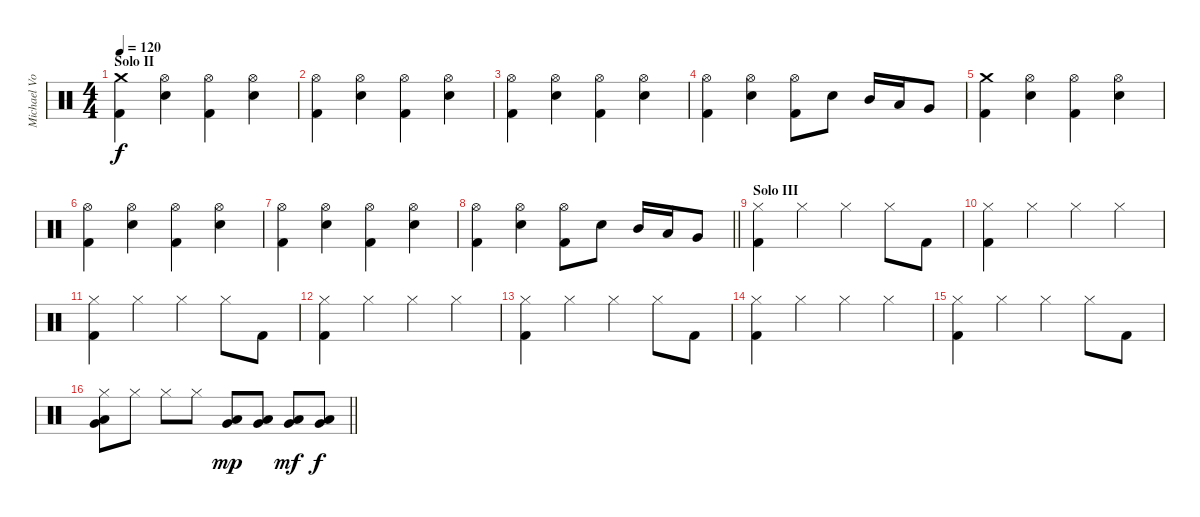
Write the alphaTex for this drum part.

\track ("Michael Von Knorring" "Michael Vo") {instrument percussion}
\staff {score}
\articulation defaults
\ts (4 4)
\section ("" "Solo II")
\tempo 120
\clef neutral
\ks c
("Crash medium (hit)" "Kick (hit) 2").4{dy f} ("Hi-Hat (open)" "Snare (hit) 2").4 ("Hi-Hat (open)" "Kick (hit) 2").4 ("Hi-Hat (open)" "Snare (hit) 2").4 |
("Hi-Hat (open)" "Kick (hit) 2").4 ("Hi-Hat (open)" "Snare (hit) 2").4 ("Hi-Hat (open)" "Kick (hit) 2").4 ("Hi-Hat (open)" "Snare (hit) 2").4 |
("Hi-Hat (open)" "Kick (hit) 2").4 ("Hi-Hat (open)" "Snare (hit) 2").4 ("Hi-Hat (open)" "Kick (hit) 2").4 ("Hi-Hat (open)" "Snare (hit) 2").4 |
("Hi-Hat (open)" "Kick (hit) 2").4 ("Hi-Hat (open)" "Snare (hit) 2").4 ("Hi-Hat (open)" "Kick (hit) 2").8 "Snare (hit) 2".8 "Mid Tom (hit)".16 "Low Tom (hit)".16 "Very Low Tom (hit)".8 |
("Crash medium (hit)" "Kick (hit) 2").4 ("Hi-Hat (open)" "Snare (hit) 2").4 ("Hi-Hat (open)" "Kick (hit) 2").4 ("Hi-Hat (open)" "Snare (hit) 2").4 |
("Hi-Hat (open)" "Kick (hit) 2").4 ("Hi-Hat (open)" "Snare (hit) 2").4 ("Hi-Hat (open)" "Kick (hit) 2").4 ("Hi-Hat (open)" "Snare (hit) 2").4 |
("Hi-Hat (open)" "Kick (hit) 2").4 ("Hi-Hat (open)" "Snare (hit) 2").4 ("Hi-Hat (open)" "Kick (hit) 2").4 ("Hi-Hat (open)" "Snare (hit) 2").4 |
\barLineRight lightlight
("Hi-Hat (open)" "Kick (hit) 2").4 ("Hi-Hat (open)" "Snare (hit) 2").4 ("Hi-Hat (open)" "Kick (hit) 2").8 "Snare (hit) 2".8 "Mid Tom (hit)".16 "Low Tom (hit)".16 "Very Low Tom (hit)".8 |
\section ("" "Solo III")
("Hi-Hat (closed)" "Kick (hit) 2").4 "Hi-Hat (closed)".4 "Hi-Hat (closed)".4 "Hi-Hat (closed)".8 "Kick (hit) 2".8 |
("Hi-Hat (closed)" "Kick (hit) 2").4 "Hi-Hat (closed)".4 "Hi-Hat (closed)".4 "Hi-Hat (closed)".4 |
("Hi-Hat (closed)" "Kick (hit) 2").4 "Hi-Hat (closed)".4 "Hi-Hat (closed)".4 "Hi-Hat (closed)".8 "Kick (hit) 2".8 |
("Hi-Hat (closed)" "Kick (hit) 2").4 "Hi-Hat (closed)".4 "Hi-Hat (closed)".4 "Hi-Hat (closed)".4 |
("Hi-Hat (closed)" "Kick (hit) 2").4 "Hi-Hat (closed)".4 "Hi-Hat (closed)".4 "Hi-Hat (closed)".8 "Kick (hit) 2".8 |
("Hi-Hat (closed)" "Kick (hit) 2").4 "Hi-Hat (closed)".4 "Hi-Hat (closed)".4 "Hi-Hat (closed)".4 |
("Hi-Hat (closed)" "Kick (hit) 2").4 "Hi-Hat (closed)".4 "Hi-Hat (closed)".4 "Hi-Hat (closed)".8 "Kick (hit) 2".8 |
\barLineRight lightlight
("Hi-Hat (closed)" "Low Tom (hit)" "Very Low Tom (hit)").8 "Hi-Hat (closed)".8 "Hi-Hat (closed)".8 "Hi-Hat (closed)".8 ("Low Tom (hit)" "Very Low Tom (hit)").8{dy mp} ("Low Tom (hit)" "Very Low Tom (hit)").8 ("Low Tom (hit)" "Very Low Tom (hit)").8{dy mf} ("Low Tom (hit)" "Very Low Tom (hit)").8{dy f}
